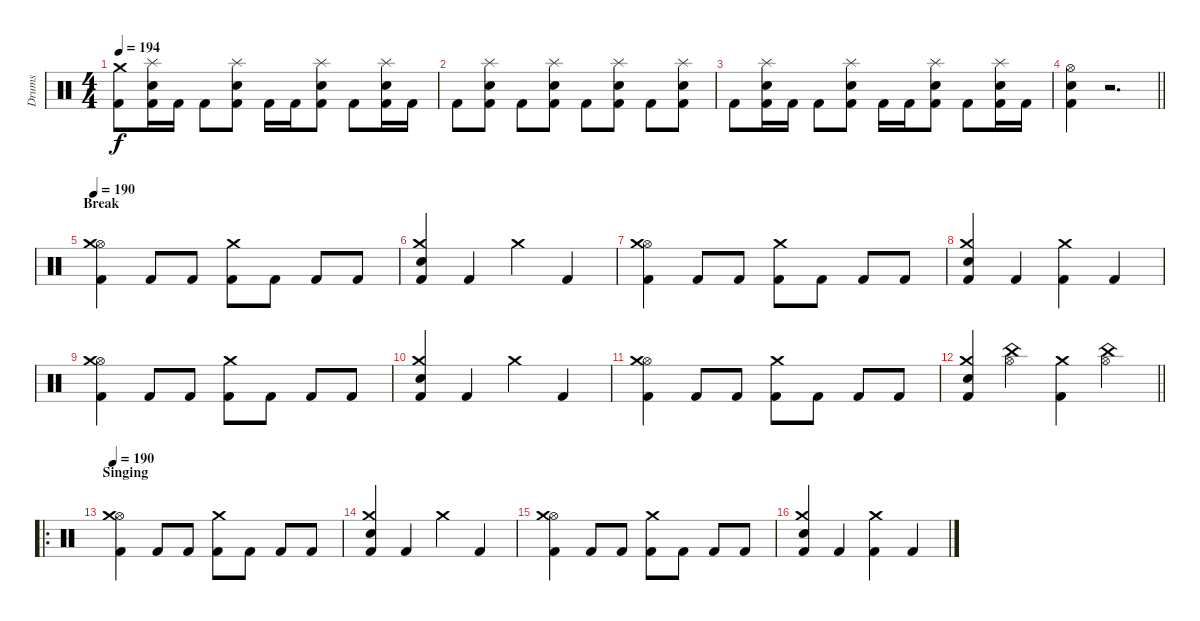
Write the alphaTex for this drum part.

\track ("Drums" "Drums") {instrument percussion}
\staff {score}
\articulation defaults
\ts (4 4)
\tempo 194
\clef neutral
\ks c
("Kick (hit) 2" "Crash medium (hit)").8{dy f} ("Kick (hit) 2" "Snare (hit) 2" "Splash (hit)").16 "Kick (hit) 2".16 "Kick (hit) 2".8 ("Kick (hit) 2" "Snare (hit) 2" "Splash (hit)").8 "Kick (hit) 2".16 "Kick (hit) 2".16 ("Kick (hit) 2" "Snare (hit) 2" "Splash (hit)").8 "Kick (hit) 2".8 ("Kick (hit) 2" "Snare (hit) 2" "Splash (hit)").16 "Kick (hit) 2".16 |
"Kick (hit) 2".8 ("Kick (hit) 2" "Snare (hit) 2" "Splash (hit)").8 "Kick (hit) 2".8 ("Kick (hit) 2" "Snare (hit) 2" "Splash (hit)").8 "Kick (hit) 2".8 ("Kick (hit) 2" "Snare (hit) 2" "Splash (hit)").8 "Kick (hit) 2".8 ("Kick (hit) 2" "Snare (hit) 2" "Splash (hit)").8 |
"Kick (hit) 2".8 ("Kick (hit) 2" "Snare (hit) 2" "Splash (hit)").16 "Kick (hit) 2".16 "Kick (hit) 2".8 ("Kick (hit) 2" "Snare (hit) 2" "Splash (hit)").8 "Kick (hit) 2".16 "Kick (hit) 2".16 ("Kick (hit) 2" "Snare (hit) 2" "Splash (hit)").8 "Kick (hit) 2".8 ("Kick (hit) 2" "Snare (hit) 2" "Splash (hit)").16 "Kick (hit) 2".16 |
\barLineRight lightlight
("Kick (hit) 2" "Snare (hit) 2" "Hi-Hat (open)").4 r.2{d} |
\section ("" "Break")
\tempo 190
("Kick (hit) 2" "Hi-Hat (open)" "Crash medium (hit)").4 "Kick (hit) 2".8 "Kick (hit) 2".8 ("Kick (hit) 2" "Crash medium (hit)").8 "Kick (hit) 2".8 "Kick (hit) 2".8 "Kick (hit) 2".8 |
("Kick (hit) 2" "Snare (hit) 2" "Crash medium (hit)").4 "Kick (hit) 2".4 "Crash medium (hit)".4 "Kick (hit) 2".4 |
("Kick (hit) 2" "Hi-Hat (open)" "Crash medium (hit)").4 "Kick (hit) 2".8 "Kick (hit) 2".8 ("Kick (hit) 2" "Crash medium (hit)").8 "Kick (hit) 2".8 "Kick (hit) 2".8 "Kick (hit) 2".8 |
("Kick (hit) 2" "Snare (hit) 2" "Crash medium (hit)").4 "Kick (hit) 2".4 ("Kick (hit) 2" "Crash medium (hit)").4 "Kick (hit) 2".4 |
("Kick (hit) 2" "Hi-Hat (open)" "Crash medium (hit)").4 "Kick (hit) 2".8 "Kick (hit) 2".8 ("Kick (hit) 2" "Crash medium (hit)").8 "Kick (hit) 2".8 "Kick (hit) 2".8 "Kick (hit) 2".8 |
("Kick (hit) 2" "Snare (hit) 2" "Crash medium (hit)").4 "Kick (hit) 2".4 "Crash medium (hit)".4 "Kick (hit) 2".4 |
("Kick (hit) 2" "Hi-Hat (open)" "Crash medium (hit)").4 "Kick (hit) 2".8 "Kick (hit) 2".8 ("Kick (hit) 2" "Crash medium (hit)").8 "Kick (hit) 2".8 "Kick (hit) 2".8 "Kick (hit) 2".8 |
\barLineRight lightlight
("Kick (hit) 2" "Snare (hit) 2" "Crash medium (hit)").4 ("China (hit)" "Hi-Hat (open)").4 ("Kick (hit) 2" "Crash medium (hit)").4 ("China (hit)" "Hi-Hat (open)").4 |
\ro
\section ("" "Singing")
\tempo 190
("Kick (hit) 2" "Hi-Hat (open)" "Crash medium (hit)").4 "Kick (hit) 2".8 "Kick (hit) 2".8 ("Kick (hit) 2" "Crash medium (hit)").8 "Kick (hit) 2".8 "Kick (hit) 2".8 "Kick (hit) 2".8 |
("Kick (hit) 2" "Snare (hit) 2" "Crash medium (hit)").4 "Kick (hit) 2".4 "Crash medium (hit)".4 "Kick (hit) 2".4 |
("Kick (hit) 2" "Hi-Hat (open)" "Crash medium (hit)").4 "Kick (hit) 2".8 "Kick (hit) 2".8 ("Kick (hit) 2" "Crash medium (hit)").8 "Kick (hit) 2".8 "Kick (hit) 2".8 "Kick (hit) 2".8 |
("Kick (hit) 2" "Snare (hit) 2" "Crash medium (hit)").4 "Kick (hit) 2".4 ("Kick (hit) 2" "Crash medium (hit)").4 "Kick (hit) 2".4
